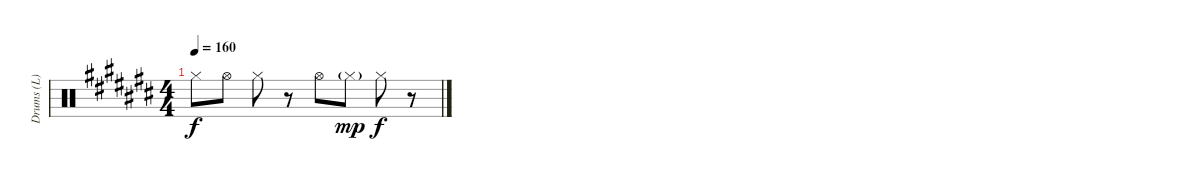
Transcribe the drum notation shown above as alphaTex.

\track ("Drums (L)" "Drums (L)") {instrument percussion}
\staff {score}
\articulation defaults
\ts (4 4)
\tempo 160
\clef neutral
\ks c# "Hi-Hat (closed)".8{dy f} "Hi-Hat (open)".8 "Hi-Hat (closed)".8
r.8 "Hi-Hat (open)".8 "Hi-Hat (closed)"{g}.8{dy mp} "Hi-Hat (closed)".8{dy f} r.8
